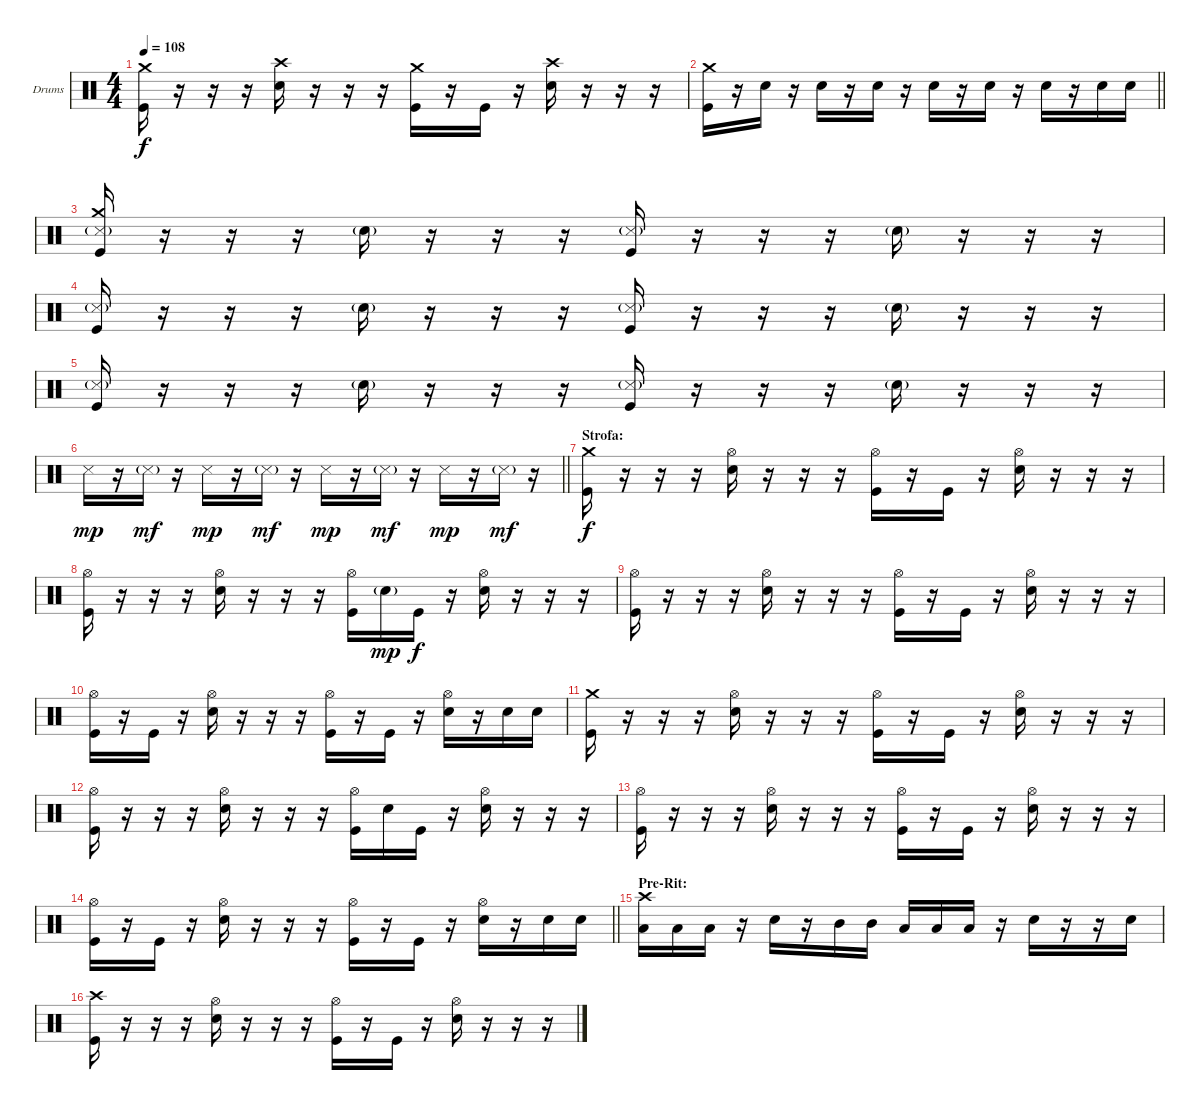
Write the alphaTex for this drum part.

\bracketExtendMode groupsimilarinstruments
\firstSystemTrackNameOrientation horizontal
\otherSystemsTrackNameOrientation horizontal
\track ("Drumkit" "Drums") {instrument percussion}
\staff {score}
\articulation defaults
\ts (4 4)
\tempo 108
\clef neutral
\ks c
("Kick (hit)" "Crash medium (hit)").16{dy f} r.16 r.16 r.16 ("Snare (hit) 2" "Crash high (hit)").16 r.16 r.16 r.16 ("Kick (hit)" "Crash medium (hit)").16 r.16 "Kick (hit)".16 r.16 ("Snare (hit) 2" "Crash high (hit)").16 r.16 r.16 r.16 |
\barLineRight lightlight
("Kick (hit)" "Crash medium (hit)").16 r.16 "Snare (hit) 2".16 r.16 "Snare (hit) 2".16 r.16 "Snare (hit) 2".16 r.16 "Snare (hit) 2".16 r.16 "Snare (hit) 2".16 r.16 "Snare (hit) 2".16 r.16 "Snare (hit) 2".16 "Snare (hit) 2".16 |
\section ("" "")
("Kick (hit)" "Snare (side stick) 3"{g} "Crash medium (hit)").16 r.16 r.16 r.16 "Snare (hit) 2"{g}.16 r.16 r.16 r.16 ("Kick (hit)" "Snare (side stick) 3"{g}).16 r.16 r.16 r.16 "Snare (hit) 2"{g}.16 r.16 r.16 r.16 |
("Kick (hit)" "Snare (side stick) 3"{g}).16 r.16 r.16 r.16 "Snare (hit) 2"{g}.16 r.16 r.16 r.16 ("Kick (hit)" "Snare (side stick) 3"{g}).16 r.16 r.16 r.16 "Snare (hit) 2"{g}.16 r.16 r.16 r.16 |
("Kick (hit)" "Snare (side stick) 3"{g}).16 r.16 r.16 r.16 "Snare (hit) 2"{g}.16 r.16 r.16 r.16 ("Kick (hit)" "Snare (side stick) 3"{g}).16 r.16 r.16 r.16 "Snare (hit) 2"{g}.16 r.16 r.16 r.16 |
\barLineRight lightlight "Snare (side stick) 3".16{dy mp}
r.16 "Snare (side stick) 3"{g}.16{dy mf} r.16 "Snare (side stick) 3".16{dy mp} r.16 "Snare (side stick) 3"{g}.16{dy mf} r.16 "Snare (side stick) 3".16{dy mp} r.16 "Snare (side stick) 3"{g}.16{dy mf} r.16 "Snare (side stick) 3".16{dy mp} r.16 "Snare (side stick) 3"{g}.16{dy mf} r.16 |
\section ("" "Strofa:")
("Kick (hit)" "Crash medium (hit)").16{dy f} r.16 r.16 r.16 ("Snare (hit) 2" "Hi-Hat (open)").16 r.16 r.16 r.16 ("Kick (hit)" "Hi-Hat (open)").16 r.16 "Kick (hit)".16 r.16 ("Snare (hit) 2" "Hi-Hat (open)").16 r.16 r.16 r.16 |
("Kick (hit)" "Hi-Hat (open)").16 r.16 r.16 r.16 ("Snare (hit) 2" "Hi-Hat (open)").16 r.16 r.16 r.16 ("Kick (hit)" "Hi-Hat (open)").16 "Snare (hit) 2"{g}.16{dy mp} "Kick (hit)".16{dy f} r.16 ("Snare (hit) 2" "Hi-Hat (open)").16 r.16 r.16 r.16 |
("Kick (hit)" "Hi-Hat (open)").16 r.16 r.16 r.16 ("Snare (hit) 2" "Hi-Hat (open)").16 r.16 r.16 r.16 ("Kick (hit)" "Hi-Hat (open)").16 r.16 "Kick (hit)".16 r.16 ("Snare (hit) 2" "Hi-Hat (open)").16 r.16 r.16 r.16 |
("Kick (hit)" "Hi-Hat (open)").16 r.16 "Kick (hit)".16 r.16 ("Snare (hit) 2" "Hi-Hat (open)").16 r.16 r.16 r.16 ("Kick (hit)" "Hi-Hat (open)").16 r.16 "Kick (hit)".16 r.16 ("Snare (hit) 2" "Hi-Hat (open)").16 r.16 "Snare (hit) 2".16 "Snare (hit) 2".16 |
("Kick (hit)" "Crash medium (hit)").16 r.16 r.16 r.16 ("Snare (hit) 2" "Hi-Hat (open)").16 r.16 r.16 r.16 ("Kick (hit)" "Hi-Hat (open)").16 r.16 "Kick (hit)".16 r.16 ("Snare (hit) 2" "Hi-Hat (open)").16 r.16 r.16 r.16 |
("Kick (hit)" "Hi-Hat (open)").16 r.16 r.16 r.16 ("Snare (hit) 2" "Hi-Hat (open)").16 r.16 r.16 r.16 ("Kick (hit)" "Hi-Hat (open)").16 "Snare (hit) 2".16 "Kick (hit)".16 r.16 ("Snare (hit) 2" "Hi-Hat (open)").16 r.16 r.16 r.16 |
("Kick (hit)" "Hi-Hat (open)").16 r.16 r.16 r.16 ("Snare (hit) 2" "Hi-Hat (open)").16 r.16 r.16 r.16 ("Kick (hit)" "Hi-Hat (open)").16 r.16 "Kick (hit)".16 r.16 ("Snare (hit) 2" "Hi-Hat (open)").16 r.16 r.16 r.16 |
\barLineRight lightlight
("Kick (hit)" "Hi-Hat (open)").16 r.16 "Kick (hit)".16 r.16 ("Snare (hit) 2" "Hi-Hat (open)").16 r.16 r.16 r.16 ("Kick (hit)" "Hi-Hat (open)").16 r.16 "Kick (hit)".16 r.16 ("Snare (hit) 2" "Hi-Hat (open)").16 r.16 "Snare (hit) 2".16 "Snare (hit) 2".16 |
\section ("" "Pre-Rit:")
("Low Tom (hit)" "Crash high (hit)").16 "Low Tom (hit)".16 "Low Tom (hit)".16 r.16 "Snare (hit) 2".16 r.16 "Mid Tom (hit)".16 "Mid Tom (hit)".16 "Low Tom (hit)".16 "Low Tom (hit)".16 "Low Tom (hit)".16 r.16 "Snare (hit) 2".16 r.16 r.16 "Snare (hit) 2".16 |
("Kick (hit)" "Crash high (hit)").16 r.16 r.16 r.16 ("Snare (hit) 2" "Hi-Hat (open)").16 r.16 r.16 r.16 ("Kick (hit)" "Hi-Hat (open)").16 r.16 "Kick (hit)".16 r.16 ("Snare (hit) 2" "Hi-Hat (open)").16 r.16 r.16 r.16
